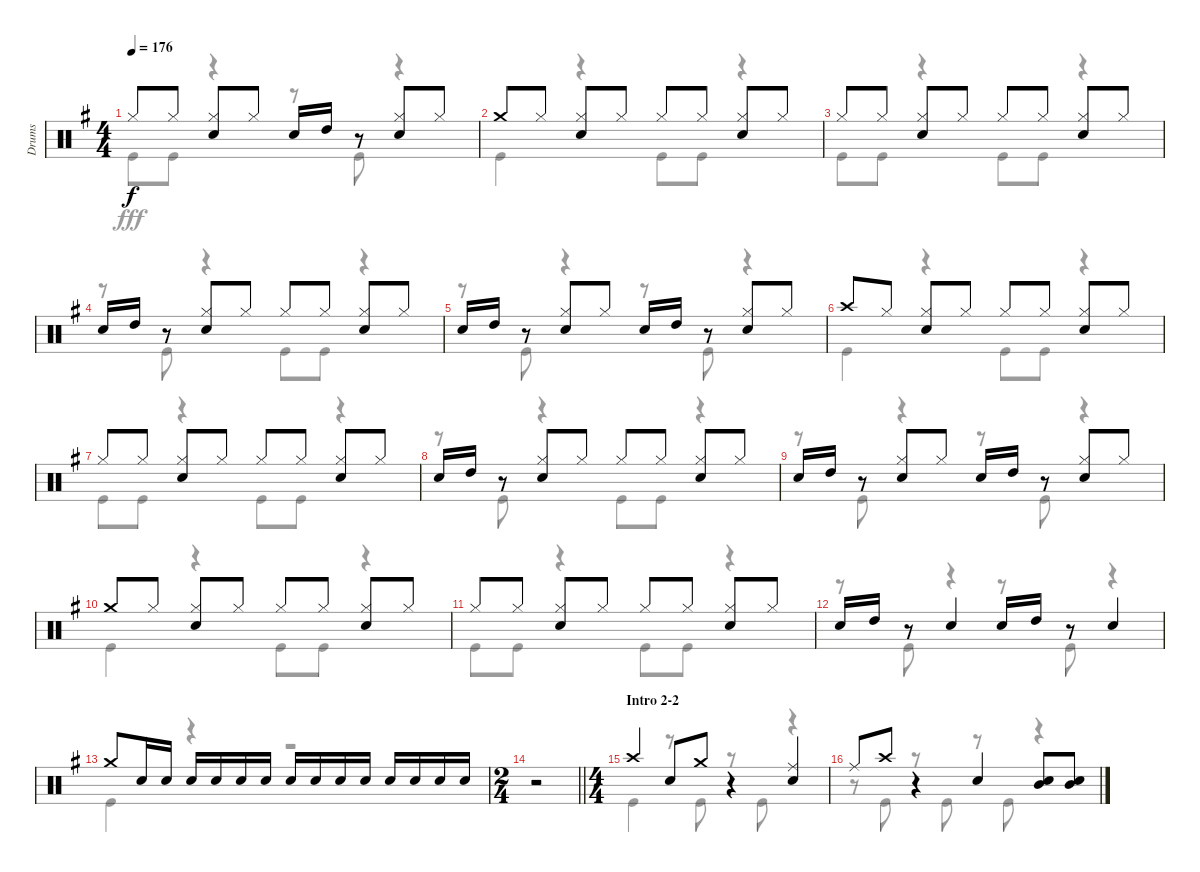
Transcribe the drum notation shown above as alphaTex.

\track ("Drums" "Drums") {instrument percussion}
\staff {score}
\articulation defaults
\voice
\ts (4 4)
\tempo 176
\clef neutral
\ks g "Hi-Hat (closed)".8{dy f} "Hi-Hat (closed)".8
("Hi-Hat (closed)" "Snare (hit) 2").8 "Hi-Hat (closed)".8 "Snare (hit) 2".16 "High Tom (hit)".16 r.8 ("Hi-Hat (closed)" "Snare (hit) 2").8 "Hi-Hat (closed)".8 |
"Crash medium (hit)".8 "Hi-Hat (closed)".8 ("Hi-Hat (closed)" "Snare (hit) 2").8 "Hi-Hat (closed)".8 "Hi-Hat (closed)".8 "Hi-Hat (closed)".8 ("Hi-Hat (closed)" "Snare (hit) 2").8 "Hi-Hat (closed)".8 |
"Hi-Hat (closed)".8 "Hi-Hat (closed)".8 ("Hi-Hat (closed)" "Snare (hit) 2").8 "Hi-Hat (closed)".8 "Hi-Hat (closed)".8 "Hi-Hat (closed)".8 ("Hi-Hat (closed)" "Snare (hit) 2").8 "Hi-Hat (closed)".8 |
"Snare (hit) 2".16 "High Tom (hit)".16 r.8 ("Hi-Hat (closed)" "Snare (hit) 2").8 "Hi-Hat (closed)".8 "Hi-Hat (closed)".8 "Hi-Hat (closed)".8 ("Hi-Hat (closed)" "Snare (hit) 2").8 "Hi-Hat (closed)".8 |
"Snare (hit) 2".16 "High Tom (hit)".16 r.8 ("Hi-Hat (closed)" "Snare (hit) 2").8 "Hi-Hat (closed)".8 "Snare (hit) 2".16 "High Tom (hit)".16 r.8 ("Hi-Hat (closed)" "Snare (hit) 2").8 "Hi-Hat (closed)".8 |
"Crash high (hit)".8 "Hi-Hat (closed)".8 ("Hi-Hat (closed)" "Snare (hit) 2").8 "Hi-Hat (closed)".8 "Hi-Hat (closed)".8 "Hi-Hat (closed)".8 ("Hi-Hat (closed)" "Snare (hit) 2").8 "Hi-Hat (closed)".8 |
"Hi-Hat (closed)".8 "Hi-Hat (closed)".8 ("Hi-Hat (closed)" "Snare (hit) 2").8 "Hi-Hat (closed)".8 "Hi-Hat (closed)".8 "Hi-Hat (closed)".8 ("Hi-Hat (closed)" "Snare (hit) 2").8 "Hi-Hat (closed)".8 |
"Snare (hit) 2".16 "High Tom (hit)".16 r.8 ("Hi-Hat (closed)" "Snare (hit) 2").8 "Hi-Hat (closed)".8 "Hi-Hat (closed)".8 "Hi-Hat (closed)".8 ("Hi-Hat (closed)" "Snare (hit) 2").8 "Hi-Hat (closed)".8 |
"Snare (hit) 2".16 "High Tom (hit)".16 r.8 ("Hi-Hat (closed)" "Snare (hit) 2").8 "Hi-Hat (closed)".8 "Snare (hit) 2".16 "High Tom (hit)".16 r.8 ("Hi-Hat (closed)" "Snare (hit) 2").8 "Hi-Hat (closed)".8 |
"Crash medium (hit)".8 "Hi-Hat (closed)".8 ("Hi-Hat (closed)" "Snare (hit) 2").8 "Hi-Hat (closed)".8 "Hi-Hat (closed)".8 "Hi-Hat (closed)".8 ("Hi-Hat (closed)" "Snare (hit) 2").8 "Hi-Hat (closed)".8 |
"Hi-Hat (closed)".8 "Hi-Hat (closed)".8 ("Hi-Hat (closed)" "Snare (hit) 2").8 "Hi-Hat (closed)".8 "Hi-Hat (closed)".8 "Hi-Hat (closed)".8 ("Hi-Hat (closed)" "Snare (hit) 2").8 "Hi-Hat (closed)".8 |
"Snare (hit) 2".16 "High Tom (hit)".16 r.8 "Snare (hit) 2".4 "Snare (hit) 2".16 "High Tom (hit)".16 r.8 "Snare (hit) 2".4 |
"Crash medium (hit)".8 "Snare (hit) 2".16 "Snare (hit) 2".16 "Snare (hit) 2".16 "Snare (hit) 2".16 "Snare (hit) 2".16 "Snare (hit) 2".16 "Snare (hit) 2".16 "Snare (hit) 2".16 "Snare (hit) 2".16 "Snare (hit) 2".16 "Snare (hit) 2".16 "Snare (hit) 2".16 "Snare (hit) 2".16 "Snare (hit) 2".16 |
\ts (2 4)
\barLineRight lightlight
r.2 |
\ts (4 4)
\section ("" "Intro 2-2")
"Crash high (hit)".4 "Snare (hit) 2".8 "Crash medium (hit)".8 r.4 ("Ride (middle)" "Snare (hit) 2").4 |
"Ride (middle)".8 "Crash high (hit)".8 r.4 "Snare (hit) 2".4 ("Mid Tom (hit)" "Snare (hit) 2").8 ("Mid Tom (hit)" "Snare (hit) 2").8
\voice
\clef neutral
\ottava regular
\simile none
\ks g "Kick (hit)".8{dy fff} "Kick (hit)".8
r.4 r.8 "Kick (hit)".8 r.4 |
"Kick (hit)".4 r.4 "Kick (hit)".8 "Kick (hit)".8 r.4 |
"Kick (hit)".8 "Kick (hit)".8 r.4 "Kick (hit)".8 "Kick (hit)".8 r.4 |
r.8 "Kick (hit)".8 r.4 "Kick (hit)".8 "Kick (hit)".8 r.4 |
r.8 "Kick (hit)".8 r.4 r.8 "Kick (hit)".8 r.4 |
"Kick (hit)".4 r.4 "Kick (hit)".8 "Kick (hit)".8 r.4 |
"Kick (hit)".8 "Kick (hit)".8 r.4 "Kick (hit)".8 "Kick (hit)".8 r.4 |
r.8 "Kick (hit)".8 r.4 "Kick (hit)".8 "Kick (hit)".8 r.4 |
r.8 "Kick (hit)".8 r.4 r.8 "Kick (hit)".8 r.4 |
"Kick (hit)".4 r.4 "Kick (hit)".8 "Kick (hit)".8 r.4 |
"Kick (hit)".8 "Kick (hit)".8 r.4 "Kick (hit)".8 "Kick (hit)".8 r.4 |
r.8 "Kick (hit)".8 r.4 r.8 "Kick (hit)".8 r.4 |
"Kick (hit)".4 r.4 r.2 |
\barLineRight lightlight
r.2 |
"Kick (hit)".4 r.8 "Kick (hit)".8 r.8 "Kick (hit)".8 r.4 |
r.8 "Kick (hit)".8 r.8 "Kick (hit)".8 r.8 "Kick (hit)".8 r.4
